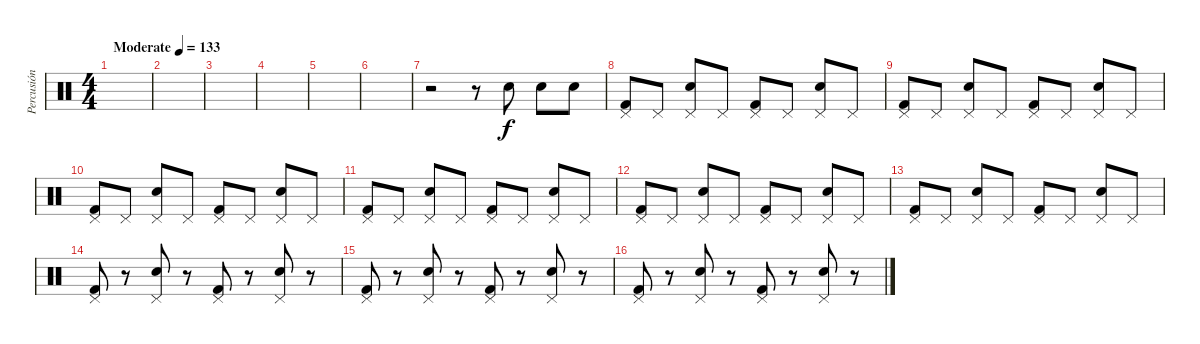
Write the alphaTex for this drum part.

\track ("Percusión" "Percusión") {instrument percussion}
\staff {score}
\articulation defaults
\ts (4 4)
\tempo (133 "Moderate")
\clef neutral
\ks c
|
|
|
|
|
|
r.2 r.8 "Electric Snare (hit)".8 "Electric Snare (hit)".8 "Electric Snare (hit)".8 |
("Pedal Hi-Hat (hit)" "Kick (hit) 2").8{dy f} "Pedal Hi-Hat (hit)".8 ("Electric Snare (hit)" "Pedal Hi-Hat (hit)").8 "Pedal Hi-Hat (hit)".8 ("Pedal Hi-Hat (hit)" "Kick (hit) 2").8 "Pedal Hi-Hat (hit)".8 ("Electric Snare (hit)" "Pedal Hi-Hat (hit)").8 "Pedal Hi-Hat (hit)".8 |
("Pedal Hi-Hat (hit)" "Kick (hit) 2").8 "Pedal Hi-Hat (hit)".8 ("Electric Snare (hit)" "Pedal Hi-Hat (hit)").8 "Pedal Hi-Hat (hit)".8 ("Pedal Hi-Hat (hit)" "Kick (hit) 2").8 "Pedal Hi-Hat (hit)".8 ("Electric Snare (hit)" "Pedal Hi-Hat (hit)").8 "Pedal Hi-Hat (hit)".8 |
("Pedal Hi-Hat (hit)" "Kick (hit) 2").8 "Pedal Hi-Hat (hit)".8 ("Electric Snare (hit)" "Pedal Hi-Hat (hit)").8 "Pedal Hi-Hat (hit)".8 ("Pedal Hi-Hat (hit)" "Kick (hit) 2").8 "Pedal Hi-Hat (hit)".8 ("Electric Snare (hit)" "Pedal Hi-Hat (hit)").8 "Pedal Hi-Hat (hit)".8 |
("Pedal Hi-Hat (hit)" "Kick (hit) 2").8 "Pedal Hi-Hat (hit)".8 ("Electric Snare (hit)" "Pedal Hi-Hat (hit)").8 "Pedal Hi-Hat (hit)".8 ("Pedal Hi-Hat (hit)" "Kick (hit) 2").8 "Pedal Hi-Hat (hit)".8 ("Electric Snare (hit)" "Pedal Hi-Hat (hit)").8 "Pedal Hi-Hat (hit)".8 |
("Pedal Hi-Hat (hit)" "Kick (hit) 2").8 "Pedal Hi-Hat (hit)".8 ("Electric Snare (hit)" "Pedal Hi-Hat (hit)").8 "Pedal Hi-Hat (hit)".8 ("Pedal Hi-Hat (hit)" "Kick (hit) 2").8 "Pedal Hi-Hat (hit)".8 ("Electric Snare (hit)" "Pedal Hi-Hat (hit)").8 "Pedal Hi-Hat (hit)".8 |
("Pedal Hi-Hat (hit)" "Kick (hit) 2").8 "Pedal Hi-Hat (hit)".8 ("Electric Snare (hit)" "Pedal Hi-Hat (hit)").8 "Pedal Hi-Hat (hit)".8 ("Pedal Hi-Hat (hit)" "Kick (hit) 2").8 "Pedal Hi-Hat (hit)".8 ("Electric Snare (hit)" "Pedal Hi-Hat (hit)").8 "Pedal Hi-Hat (hit)".8 |
("Pedal Hi-Hat (hit)" "Kick (hit) 2").8 r.8 ("Electric Snare (hit)" "Pedal Hi-Hat (hit)").8 r.8 ("Pedal Hi-Hat (hit)" "Kick (hit) 2").8 r.8 ("Electric Snare (hit)" "Pedal Hi-Hat (hit)").8 r.8 |
("Pedal Hi-Hat (hit)" "Kick (hit) 2").8 r.8 ("Electric Snare (hit)" "Pedal Hi-Hat (hit)").8 r.8 ("Pedal Hi-Hat (hit)" "Kick (hit) 2").8 r.8 ("Electric Snare (hit)" "Pedal Hi-Hat (hit)").8 r.8 |
("Pedal Hi-Hat (hit)" "Kick (hit) 2").8 r.8 ("Electric Snare (hit)" "Pedal Hi-Hat (hit)").8 r.8 ("Pedal Hi-Hat (hit)" "Kick (hit) 2").8 r.8 ("Electric Snare (hit)" "Pedal Hi-Hat (hit)").8 r.8
